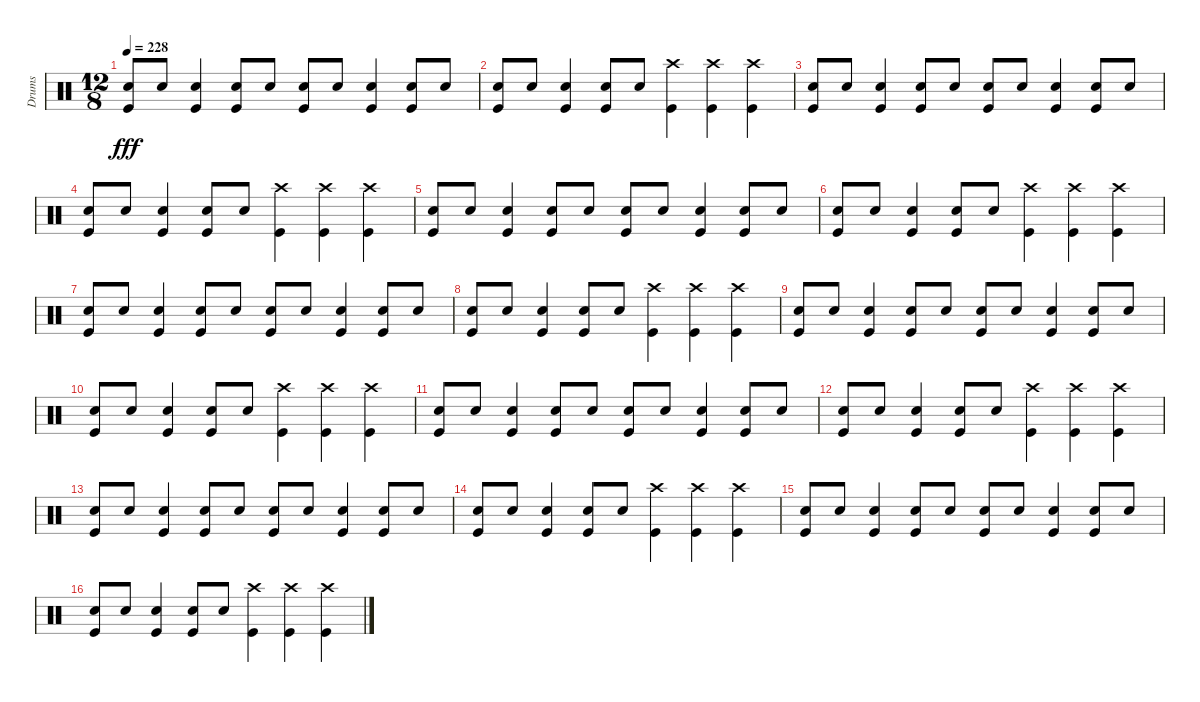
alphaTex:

\track ("Drums" "Drums") {instrument percussion}
\staff {score}
\articulation defaults
\ts (12 8)
\tempo 228
\clef neutral
\ks c
("Snare (hit) 2" "Kick (hit)").8{dy fff} "Snare (hit) 2".8 ("Snare (hit) 2" "Kick (hit)").4 ("Snare (hit) 2" "Kick (hit)").8 "Snare (hit) 2".8 ("Snare (hit) 2" "Kick (hit)").8 "Snare (hit) 2".8 ("Snare (hit) 2" "Kick (hit)").4 ("Snare (hit) 2" "Kick (hit)").8 "Snare (hit) 2".8 |
("Snare (hit) 2" "Kick (hit)").8 "Snare (hit) 2".8 ("Snare (hit) 2" "Kick (hit)").4 ("Snare (hit) 2" "Kick (hit)").8 "Snare (hit) 2".8 ("Crash high (hit)" "Kick (hit)").4 ("Crash high (hit)" "Kick (hit)").4 ("Crash high (hit)" "Kick (hit)").4 |
("Snare (hit) 2" "Kick (hit)").8 "Snare (hit) 2".8 ("Snare (hit) 2" "Kick (hit)").4 ("Snare (hit) 2" "Kick (hit)").8 "Snare (hit) 2".8 ("Snare (hit) 2" "Kick (hit)").8 "Snare (hit) 2".8 ("Snare (hit) 2" "Kick (hit)").4 ("Snare (hit) 2" "Kick (hit)").8 "Snare (hit) 2".8 |
("Snare (hit) 2" "Kick (hit)").8 "Snare (hit) 2".8 ("Snare (hit) 2" "Kick (hit)").4 ("Snare (hit) 2" "Kick (hit)").8 "Snare (hit) 2".8 ("Crash high (hit)" "Kick (hit)").4 ("Crash high (hit)" "Kick (hit)").4 ("Crash high (hit)" "Kick (hit)").4 |
("Snare (hit) 2" "Kick (hit)").8 "Snare (hit) 2".8 ("Snare (hit) 2" "Kick (hit)").4 ("Snare (hit) 2" "Kick (hit)").8 "Snare (hit) 2".8 ("Snare (hit) 2" "Kick (hit)").8 "Snare (hit) 2".8 ("Snare (hit) 2" "Kick (hit)").4 ("Snare (hit) 2" "Kick (hit)").8 "Snare (hit) 2".8 |
("Snare (hit) 2" "Kick (hit)").8 "Snare (hit) 2".8 ("Snare (hit) 2" "Kick (hit)").4 ("Snare (hit) 2" "Kick (hit)").8 "Snare (hit) 2".8 ("Crash high (hit)" "Kick (hit)").4 ("Crash high (hit)" "Kick (hit)").4 ("Crash high (hit)" "Kick (hit)").4 |
("Snare (hit) 2" "Kick (hit)").8 "Snare (hit) 2".8 ("Snare (hit) 2" "Kick (hit)").4 ("Snare (hit) 2" "Kick (hit)").8 "Snare (hit) 2".8 ("Snare (hit) 2" "Kick (hit)").8 "Snare (hit) 2".8 ("Snare (hit) 2" "Kick (hit)").4 ("Snare (hit) 2" "Kick (hit)").8 "Snare (hit) 2".8 |
("Snare (hit) 2" "Kick (hit)").8 "Snare (hit) 2".8 ("Snare (hit) 2" "Kick (hit)").4 ("Snare (hit) 2" "Kick (hit)").8 "Snare (hit) 2".8 ("Crash high (hit)" "Kick (hit)").4 ("Crash high (hit)" "Kick (hit)").4 ("Crash high (hit)" "Kick (hit)").4 |
("Snare (hit) 2" "Kick (hit)").8 "Snare (hit) 2".8 ("Snare (hit) 2" "Kick (hit)").4 ("Snare (hit) 2" "Kick (hit)").8 "Snare (hit) 2".8 ("Snare (hit) 2" "Kick (hit)").8 "Snare (hit) 2".8 ("Snare (hit) 2" "Kick (hit)").4 ("Snare (hit) 2" "Kick (hit)").8 "Snare (hit) 2".8 |
("Snare (hit) 2" "Kick (hit)").8 "Snare (hit) 2".8 ("Snare (hit) 2" "Kick (hit)").4 ("Snare (hit) 2" "Kick (hit)").8 "Snare (hit) 2".8 ("Crash high (hit)" "Kick (hit)").4 ("Crash high (hit)" "Kick (hit)").4 ("Crash high (hit)" "Kick (hit)").4 |
("Snare (hit) 2" "Kick (hit)").8 "Snare (hit) 2".8 ("Snare (hit) 2" "Kick (hit)").4 ("Snare (hit) 2" "Kick (hit)").8 "Snare (hit) 2".8 ("Snare (hit) 2" "Kick (hit)").8 "Snare (hit) 2".8 ("Snare (hit) 2" "Kick (hit)").4 ("Snare (hit) 2" "Kick (hit)").8 "Snare (hit) 2".8 |
("Snare (hit) 2" "Kick (hit)").8 "Snare (hit) 2".8 ("Snare (hit) 2" "Kick (hit)").4 ("Snare (hit) 2" "Kick (hit)").8 "Snare (hit) 2".8 ("Crash high (hit)" "Kick (hit)").4 ("Crash high (hit)" "Kick (hit)").4 ("Crash high (hit)" "Kick (hit)").4 |
("Snare (hit) 2" "Kick (hit)").8 "Snare (hit) 2".8 ("Snare (hit) 2" "Kick (hit)").4 ("Snare (hit) 2" "Kick (hit)").8 "Snare (hit) 2".8 ("Snare (hit) 2" "Kick (hit)").8 "Snare (hit) 2".8 ("Snare (hit) 2" "Kick (hit)").4 ("Snare (hit) 2" "Kick (hit)").8 "Snare (hit) 2".8 |
("Snare (hit) 2" "Kick (hit)").8 "Snare (hit) 2".8 ("Snare (hit) 2" "Kick (hit)").4 ("Snare (hit) 2" "Kick (hit)").8 "Snare (hit) 2".8 ("Crash high (hit)" "Kick (hit)").4 ("Crash high (hit)" "Kick (hit)").4 ("Crash high (hit)" "Kick (hit)").4 |
("Snare (hit) 2" "Kick (hit)").8 "Snare (hit) 2".8 ("Snare (hit) 2" "Kick (hit)").4 ("Snare (hit) 2" "Kick (hit)").8 "Snare (hit) 2".8 ("Snare (hit) 2" "Kick (hit)").8 "Snare (hit) 2".8 ("Snare (hit) 2" "Kick (hit)").4 ("Snare (hit) 2" "Kick (hit)").8 "Snare (hit) 2".8 |
("Snare (hit) 2" "Kick (hit)").8 "Snare (hit) 2".8 ("Snare (hit) 2" "Kick (hit)").4 ("Snare (hit) 2" "Kick (hit)").8 "Snare (hit) 2".8 ("Crash high (hit)" "Kick (hit)").4 ("Crash high (hit)" "Kick (hit)").4 ("Crash high (hit)" "Kick (hit)").4
